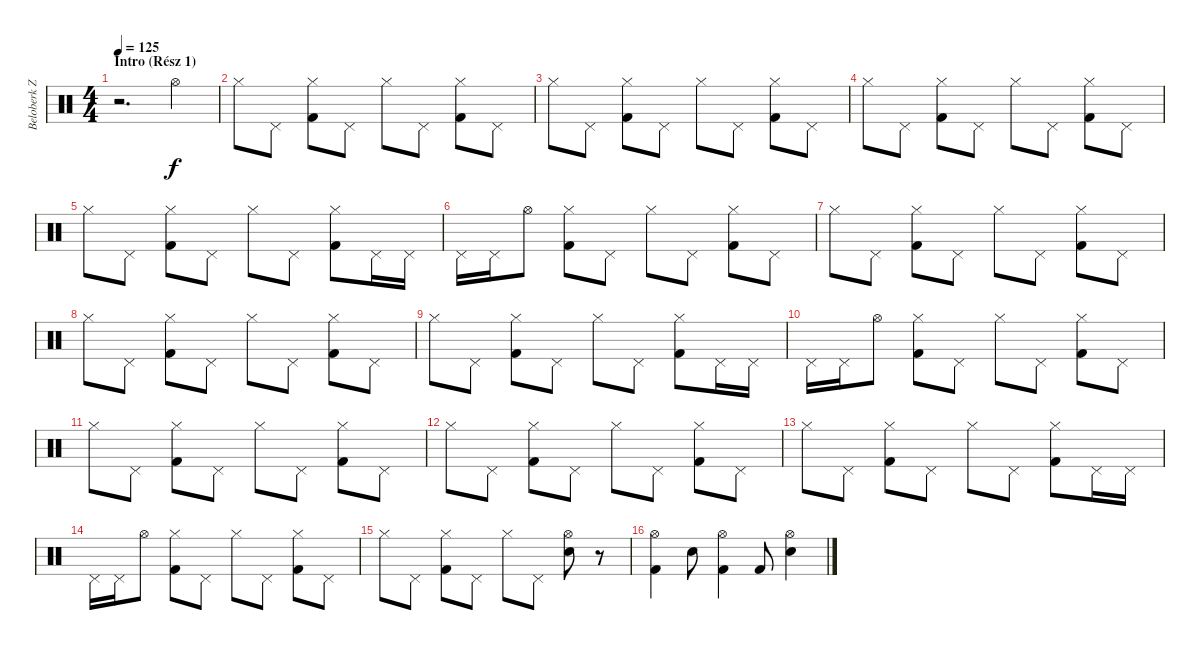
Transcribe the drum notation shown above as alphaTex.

\track ("Beloberk Zsolt - Dobok" "Beloberk Z") {instrument percussion}
\staff {score}
\articulation defaults
\ts (4 4)
\section ("" "Intro (Rész 1)")
\tempo 125
\clef neutral
\ks c
r.2{d dy f} "Hi-Hat (open)".4 |
"Hi-Hat (closed)".8 "Pedal Hi-Hat (hit)".8 ("Hi-Hat (closed)" "Kick (hit) 2").8 "Pedal Hi-Hat (hit)".8 "Hi-Hat (closed)".8 "Pedal Hi-Hat (hit)".8 ("Hi-Hat (closed)" "Kick (hit) 2").8 "Pedal Hi-Hat (hit)".8 |
"Hi-Hat (closed)".8 "Pedal Hi-Hat (hit)".8 ("Hi-Hat (closed)" "Kick (hit) 2").8 "Pedal Hi-Hat (hit)".8 "Hi-Hat (closed)".8 "Pedal Hi-Hat (hit)".8 ("Hi-Hat (closed)" "Kick (hit) 2").8 "Pedal Hi-Hat (hit)".8 |
"Hi-Hat (closed)".8 "Pedal Hi-Hat (hit)".8 ("Hi-Hat (closed)" "Kick (hit) 2").8 "Pedal Hi-Hat (hit)".8 "Hi-Hat (closed)".8 "Pedal Hi-Hat (hit)".8 ("Hi-Hat (closed)" "Kick (hit) 2").8 "Pedal Hi-Hat (hit)".8 |
"Hi-Hat (closed)".8 "Pedal Hi-Hat (hit)".8 ("Hi-Hat (closed)" "Kick (hit) 2").8 "Pedal Hi-Hat (hit)".8 "Hi-Hat (closed)".8 "Pedal Hi-Hat (hit)".8 ("Hi-Hat (closed)" "Kick (hit) 2").8 "Pedal Hi-Hat (hit)".16 "Pedal Hi-Hat (hit)".16 |
"Pedal Hi-Hat (hit)".16 "Pedal Hi-Hat (hit)".16 "Hi-Hat (open)".8 ("Hi-Hat (closed)" "Kick (hit) 2").8 "Pedal Hi-Hat (hit)".8 "Hi-Hat (closed)".8 "Pedal Hi-Hat (hit)".8 ("Hi-Hat (closed)" "Kick (hit) 2").8 "Pedal Hi-Hat (hit)".8 |
"Hi-Hat (closed)".8 "Pedal Hi-Hat (hit)".8 ("Hi-Hat (closed)" "Kick (hit) 2").8 "Pedal Hi-Hat (hit)".8 "Hi-Hat (closed)".8 "Pedal Hi-Hat (hit)".8 ("Hi-Hat (closed)" "Kick (hit) 2").8 "Pedal Hi-Hat (hit)".8 |
"Hi-Hat (closed)".8 "Pedal Hi-Hat (hit)".8 ("Hi-Hat (closed)" "Kick (hit) 2").8 "Pedal Hi-Hat (hit)".8 "Hi-Hat (closed)".8 "Pedal Hi-Hat (hit)".8 ("Hi-Hat (closed)" "Kick (hit) 2").8 "Pedal Hi-Hat (hit)".8 |
"Hi-Hat (closed)".8 "Pedal Hi-Hat (hit)".8 ("Hi-Hat (closed)" "Kick (hit) 2").8 "Pedal Hi-Hat (hit)".8 "Hi-Hat (closed)".8 "Pedal Hi-Hat (hit)".8 ("Hi-Hat (closed)" "Kick (hit) 2").8 "Pedal Hi-Hat (hit)".16 "Pedal Hi-Hat (hit)".16 |
"Pedal Hi-Hat (hit)".16 "Pedal Hi-Hat (hit)".16 "Hi-Hat (open)".8 ("Hi-Hat (closed)" "Kick (hit) 2").8 "Pedal Hi-Hat (hit)".8 "Hi-Hat (closed)".8 "Pedal Hi-Hat (hit)".8 ("Hi-Hat (closed)" "Kick (hit) 2").8 "Pedal Hi-Hat (hit)".8 |
"Hi-Hat (closed)".8 "Pedal Hi-Hat (hit)".8 ("Hi-Hat (closed)" "Kick (hit) 2").8 "Pedal Hi-Hat (hit)".8 "Hi-Hat (closed)".8 "Pedal Hi-Hat (hit)".8 ("Hi-Hat (closed)" "Kick (hit) 2").8 "Pedal Hi-Hat (hit)".8 |
"Hi-Hat (closed)".8 "Pedal Hi-Hat (hit)".8 ("Hi-Hat (closed)" "Kick (hit) 2").8 "Pedal Hi-Hat (hit)".8 "Hi-Hat (closed)".8 "Pedal Hi-Hat (hit)".8 ("Hi-Hat (closed)" "Kick (hit) 2").8 "Pedal Hi-Hat (hit)".8 |
"Hi-Hat (closed)".8 "Pedal Hi-Hat (hit)".8 ("Hi-Hat (closed)" "Kick (hit) 2").8 "Pedal Hi-Hat (hit)".8 "Hi-Hat (closed)".8 "Pedal Hi-Hat (hit)".8 ("Hi-Hat (closed)" "Kick (hit) 2").8 "Pedal Hi-Hat (hit)".16 "Pedal Hi-Hat (hit)".16 |
"Pedal Hi-Hat (hit)".16 "Pedal Hi-Hat (hit)".16 "Hi-Hat (open)".8 ("Hi-Hat (closed)" "Kick (hit) 2").8 "Pedal Hi-Hat (hit)".8 "Hi-Hat (closed)".8 "Pedal Hi-Hat (hit)".8 ("Hi-Hat (closed)" "Kick (hit) 2").8 "Pedal Hi-Hat (hit)".8 |
"Hi-Hat (closed)".8 "Pedal Hi-Hat (hit)".8 ("Hi-Hat (closed)" "Kick (hit) 2").8 "Pedal Hi-Hat (hit)".8 "Hi-Hat (closed)".8 "Pedal Hi-Hat (hit)".8 ("Hi-Hat (open)" "Electric Snare (hit)").8 r.8 |
("Hi-Hat (open)" "Kick (hit) 2").4 "Electric Snare (hit)".8 ("Hi-Hat (open)" "Kick (hit) 2").4 "Kick (hit) 2".8 ("Hi-Hat (open)" "Electric Snare (hit)").4
